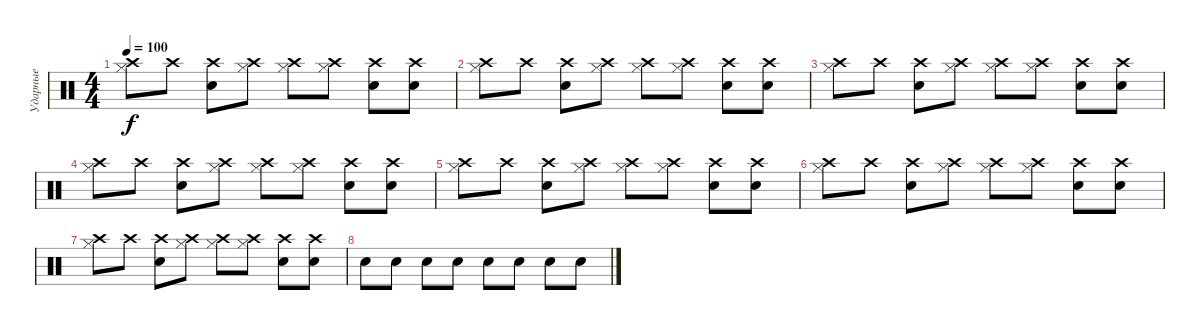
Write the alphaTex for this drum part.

\track ("Ударные" "Ударные") {instrument percussion}
\staff {score}
\articulation defaults
\ts (4 4)
\tempo 100
\clef neutral
\ks c
("Crash high (hit)" "Hi-Hat (closed)").8{dy f} "Crash high (hit)".8 ("Crash high (hit)" "Snare (hit) 2").8 ("Crash high (hit)" "Hi-Hat (closed)").8 ("Crash high (hit)" "Hi-Hat (closed)").8 ("Crash high (hit)" "Hi-Hat (closed)").8 ("Crash high (hit)" "Snare (hit) 2").8 ("Crash high (hit)" "Snare (hit) 2").8 |
("Crash high (hit)" "Hi-Hat (closed)").8 "Crash high (hit)".8 ("Crash high (hit)" "Snare (hit) 2").8 ("Crash high (hit)" "Hi-Hat (closed)").8 ("Crash high (hit)" "Hi-Hat (closed)").8 ("Crash high (hit)" "Hi-Hat (closed)").8 ("Crash high (hit)" "Snare (hit) 2").8 ("Crash high (hit)" "Snare (hit) 2").8 |
("Crash high (hit)" "Hi-Hat (closed)").8 "Crash high (hit)".8 ("Crash high (hit)" "Snare (hit) 2").8 ("Crash high (hit)" "Hi-Hat (closed)").8 ("Crash high (hit)" "Hi-Hat (closed)").8 ("Crash high (hit)" "Hi-Hat (closed)").8 ("Crash high (hit)" "Snare (hit) 2").8 ("Crash high (hit)" "Snare (hit) 2").8 |
("Crash high (hit)" "Hi-Hat (closed)").8 "Crash high (hit)".8 ("Crash high (hit)" "Snare (hit) 2").8 ("Crash high (hit)" "Hi-Hat (closed)").8 ("Crash high (hit)" "Hi-Hat (closed)").8 ("Crash high (hit)" "Hi-Hat (closed)").8 ("Crash high (hit)" "Snare (hit) 2").8 ("Crash high (hit)" "Snare (hit) 2").8 |
("Crash high (hit)" "Hi-Hat (closed)").8 "Crash high (hit)".8 ("Crash high (hit)" "Snare (hit) 2").8 ("Crash high (hit)" "Hi-Hat (closed)").8 ("Crash high (hit)" "Hi-Hat (closed)").8 ("Crash high (hit)" "Hi-Hat (closed)").8 ("Crash high (hit)" "Snare (hit) 2").8 ("Crash high (hit)" "Snare (hit) 2").8 |
("Crash high (hit)" "Hi-Hat (closed)").8 "Crash high (hit)".8 ("Crash high (hit)" "Snare (hit) 2").8 ("Crash high (hit)" "Hi-Hat (closed)").8 ("Crash high (hit)" "Hi-Hat (closed)").8 ("Crash high (hit)" "Hi-Hat (closed)").8 ("Crash high (hit)" "Snare (hit) 2").8 ("Crash high (hit)" "Snare (hit) 2").8 |
("Crash high (hit)" "Hi-Hat (closed)").8 "Crash high (hit)".8 ("Crash high (hit)" "Snare (hit) 2").8 ("Crash high (hit)" "Hi-Hat (closed)").8 ("Crash high (hit)" "Hi-Hat (closed)").8 ("Crash high (hit)" "Hi-Hat (closed)").8 ("Crash high (hit)" "Snare (hit) 2").8 ("Crash high (hit)" "Snare (hit) 2").8 |
"Snare (hit) 2".8 "Snare (hit) 2".8 "Snare (hit) 2".8 "Snare (hit) 2".8 "Snare (hit) 2".8 "Snare (hit) 2".8 "Snare (hit) 2".8 "Snare (hit) 2".8
